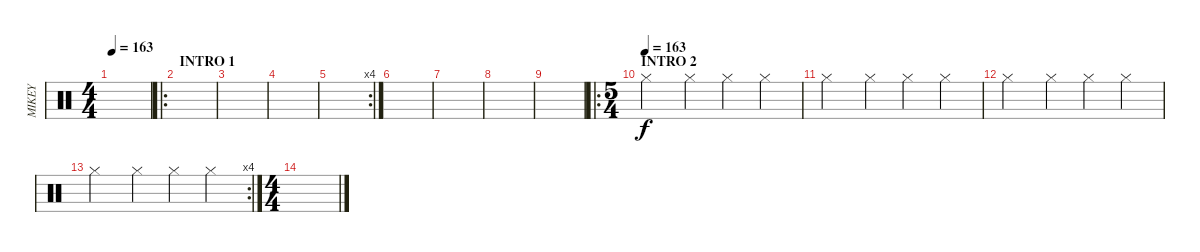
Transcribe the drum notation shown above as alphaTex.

\track ("MIKEY" "MIKEY") {instrument percussion}
\staff {score}
\articulation defaults
\ts (4 4)
\tempo 163
\tempo 90
\tempo 163
\clef neutral
\ks c
|
\ro
\section ("" "INTRO 1")
|
|
|
\rc 4
|
|
|
|
|
\ro
\ts (5 4)
\section ("" "INTRO 2")
\tempo (163)
"Hi-Hat (closed)".2 "Hi-Hat (closed)".4 "Hi-Hat (closed)".4 "Hi-Hat (closed)".4 |
"Hi-Hat (closed)".2 "Hi-Hat (closed)".4 "Hi-Hat (closed)".4 "Hi-Hat (closed)".4 |
"Hi-Hat (closed)".2 "Hi-Hat (closed)".4 "Hi-Hat (closed)".4 "Hi-Hat (closed)".4 |
\rc 4 "Hi-Hat (closed)".2 "Hi-Hat (closed)".4 "Hi-Hat (closed)".4 "Hi-Hat (closed)".4
|
\ts (4 4)
